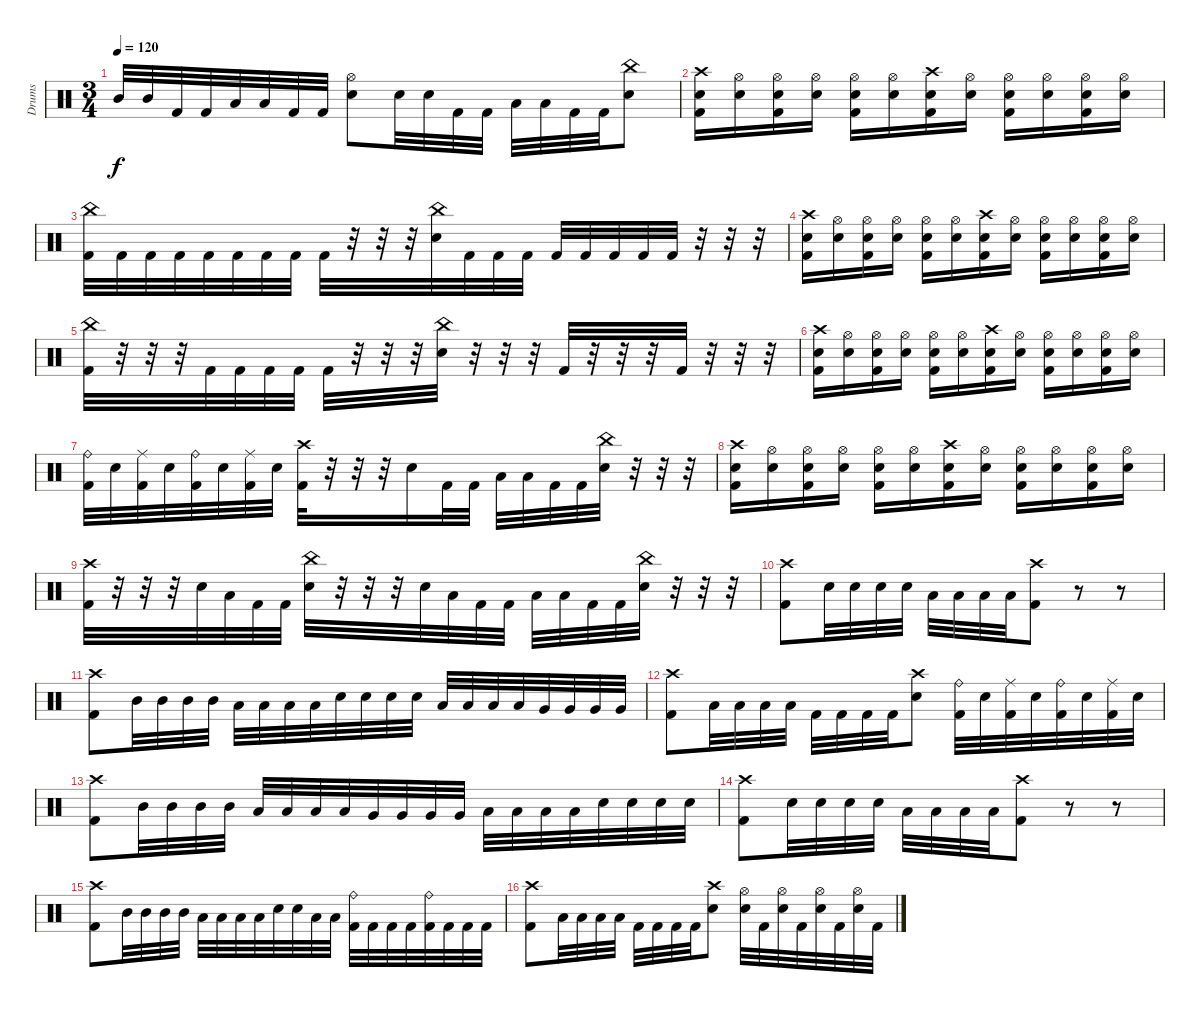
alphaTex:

\track ("Drums" "Drums") {instrument percussion}
\staff {score}
\articulation defaults
\ts (3 4)
\tempo 120
\clef neutral
\ks c "Mid Tom (hit)".32{dy f} "Mid Tom (hit)".32 "Kick (hit) 2".32 "Kick (hit) 2".32 "Low Tom (hit)".32 "Low Tom (hit)".32 "Kick (hit) 2".32 "Kick (hit) 2".32
("Hi-Hat (open)" "Electric Snare (hit)").8 "Electric Snare (hit)".32 "Electric Snare (hit)".32 "Kick (hit) 2".32 "Kick (hit) 2".32 "Low Tom (hit)".32 "Low Tom (hit)".32 "Kick (hit) 2".32 "Kick (hit) 2".32 ("China (hit)" "Electric Snare (hit)").8 |
("Crash high (hit)" "Electric Snare (hit)" "Kick (hit) 2").16 ("Hi-Hat (open)" "Electric Snare (hit)").16 ("Hi-Hat (open)" "Electric Snare (hit)" "Kick (hit) 2").16 ("Hi-Hat (open)" "Electric Snare (hit)").16 ("Hi-Hat (open)" "Electric Snare (hit)" "Kick (hit) 2").16 ("Hi-Hat (open)" "Electric Snare (hit)").16 ("Crash high (hit)" "Electric Snare (hit)" "Kick (hit) 2").16 ("Hi-Hat (open)" "Electric Snare (hit)").16 ("Hi-Hat (open)" "Electric Snare (hit)" "Kick (hit) 2").16 ("Hi-Hat (open)" "Electric Snare (hit)").16 ("Hi-Hat (open)" "Electric Snare (hit)" "Kick (hit) 2").16 ("Hi-Hat (open)" "Electric Snare (hit)").16 |
("China (hit)" "Kick (hit) 2").32 "Kick (hit) 2".32 "Kick (hit) 2".32 "Kick (hit) 2".32 "Kick (hit) 2".32 "Kick (hit) 2".32 "Kick (hit) 2".32 "Kick (hit) 2".32 "Kick (hit) 2".32 r.32 r.32 r.32 ("China (hit)" "Electric Snare (hit)").32 "Kick (hit) 2".32 "Kick (hit) 2".32 "Kick (hit) 2".32 "Kick (hit) 2".32 "Kick (hit) 2".32 "Kick (hit) 2".32 "Kick (hit) 2".32 "Kick (hit) 2".32 r.32 r.32 r.32 |
("Crash high (hit)" "Electric Snare (hit)" "Kick (hit) 2").16 ("Hi-Hat (open)" "Electric Snare (hit)").16 ("Hi-Hat (open)" "Electric Snare (hit)" "Kick (hit) 2").16 ("Hi-Hat (open)" "Electric Snare (hit)").16 ("Hi-Hat (open)" "Electric Snare (hit)" "Kick (hit) 2").16 ("Hi-Hat (open)" "Electric Snare (hit)").16 ("Crash high (hit)" "Electric Snare (hit)" "Kick (hit) 2").16 ("Hi-Hat (open)" "Electric Snare (hit)").16 ("Hi-Hat (open)" "Electric Snare (hit)" "Kick (hit) 2").16 ("Hi-Hat (open)" "Electric Snare (hit)").16 ("Hi-Hat (open)" "Electric Snare (hit)" "Kick (hit) 2").16 ("Hi-Hat (open)" "Electric Snare (hit)").16 |
("China (hit)" "Kick (hit) 2").32 r.32 r.32 r.32 "Kick (hit) 2".32 "Kick (hit) 2".32 "Kick (hit) 2".32 "Kick (hit) 2".32 "Kick (hit) 2".32 r.32 r.32 r.32 ("China (hit)" "Electric Snare (hit)").32 r.32 r.32 r.32 "Kick (hit) 2".32 r.32 r.32 r.32 "Kick (hit) 2".32 r.32 r.32 r.32 |
("Crash high (hit)" "Electric Snare (hit)" "Kick (hit) 2").16 ("Hi-Hat (open)" "Electric Snare (hit)").16 ("Hi-Hat (open)" "Electric Snare (hit)" "Kick (hit) 2").16 ("Hi-Hat (open)" "Electric Snare (hit)").16 ("Hi-Hat (open)" "Electric Snare (hit)" "Kick (hit) 2").16 ("Hi-Hat (open)" "Electric Snare (hit)").16 ("Crash high (hit)" "Electric Snare (hit)" "Kick (hit) 2").16 ("Hi-Hat (open)" "Electric Snare (hit)").16 ("Hi-Hat (open)" "Electric Snare (hit)" "Kick (hit) 2").16 ("Hi-Hat (open)" "Electric Snare (hit)").16 ("Hi-Hat (open)" "Electric Snare (hit)" "Kick (hit) 2").16 ("Hi-Hat (open)" "Electric Snare (hit)").16 |
("Ride (bell)" "Kick (hit) 2").32 "Electric Snare (hit)".32 ("Ride (middle)" "Kick (hit) 2").32 "Electric Snare (hit)".32 ("Ride (bell)" "Kick (hit) 2").32 "Electric Snare (hit)".32 ("Ride (middle)" "Kick (hit) 2").32 "Electric Snare (hit)".32 ("Crash high (hit)" "Kick (hit) 2").32 r.32 r.32 r.32 "Electric Snare (hit)".16 "Kick (hit) 2".32 "Kick (hit) 2".32 "Low Tom (hit)".32 "Low Tom (hit)".32 "Kick (hit) 2".32 "Kick (hit) 2".32 ("China (hit)" "Electric Snare (hit)").32 r.32 r.32 r.32 |
("Crash high (hit)" "Electric Snare (hit)" "Kick (hit) 2").16 ("Hi-Hat (open)" "Electric Snare (hit)").16 ("Hi-Hat (open)" "Electric Snare (hit)" "Kick (hit) 2").16 ("Hi-Hat (open)" "Electric Snare (hit)").16 ("Hi-Hat (open)" "Electric Snare (hit)" "Kick (hit) 2").16 ("Hi-Hat (open)" "Electric Snare (hit)").16 ("Crash high (hit)" "Electric Snare (hit)" "Kick (hit) 2").16 ("Hi-Hat (open)" "Electric Snare (hit)").16 ("Hi-Hat (open)" "Electric Snare (hit)" "Kick (hit) 2").16 ("Hi-Hat (open)" "Electric Snare (hit)").16 ("Hi-Hat (open)" "Electric Snare (hit)" "Kick (hit) 2").16 ("Hi-Hat (open)" "Electric Snare (hit)").16 |
("Crash high (hit)" "Kick (hit) 2").32 r.32 r.32 r.32 "Electric Snare (hit)".32 "Low Tom (hit)".32 "Kick (hit) 2".32 "Kick (hit) 2".32 ("China (hit)" "Electric Snare (hit)").32 r.32 r.32 r.32 "Electric Snare (hit)".32 "Low Tom (hit)".32 "Kick (hit) 2".32 "Kick (hit) 2".32 "Low Tom (hit)".32 "Low Tom (hit)".32 "Kick (hit) 2".32 "Kick (hit) 2".32 ("China (hit)" "Electric Snare (hit)").32 r.32 r.32 r.32 |
("Crash high (hit)" "Kick (hit) 2").8 "Electric Snare (hit)".32 "Electric Snare (hit)".32 "Electric Snare (hit)".32 "Electric Snare (hit)".32 "Low Tom (hit)".32 "Low Tom (hit)".32 "Low Tom (hit)".32 "Low Tom (hit)".32 ("Crash high (hit)" "Kick (hit) 2").8 r.8 r.8 |
("Crash high (hit)" "Kick (hit) 2").8 "Mid Tom (hit)".32 "Mid Tom (hit)".32 "Mid Tom (hit)".32 "Mid Tom (hit)".32 "Low Tom (hit)".32 "Low Tom (hit)".32 "Low Tom (hit)".32 "Low Tom (hit)".32 "Electric Snare (hit)".32 "Electric Snare (hit)".32 "Electric Snare (hit)".32 "Electric Snare (hit)".32 "Low Tom (hit)".32 "Low Tom (hit)".32 "Low Tom (hit)".32 "Low Tom (hit)".32 "Very Low Tom (hit)".32 "Very Low Tom (hit)".32 "Very Low Tom (hit)".32 "Very Low Tom (hit)".32 |
("Crash high (hit)" "Kick (hit) 2").8 "Low Tom (hit)".32 "Low Tom (hit)".32 "Low Tom (hit)".32 "Low Tom (hit)".32 "Kick (hit) 2".32 "Kick (hit) 2".32 "Kick (hit) 2".32 "Kick (hit) 2".32 ("Crash high (hit)" "Electric Snare (hit)").8 ("Ride (bell)" "Kick (hit) 2").32 "Electric Snare (hit)".32 ("Ride (middle)" "Kick (hit) 2").32 "Electric Snare (hit)".32 ("Ride (bell)" "Kick (hit) 2").32 "Electric Snare (hit)".32 ("Ride (middle)" "Kick (hit) 2").32 "Electric Snare (hit)".32 |
("Crash high (hit)" "Kick (hit) 2").8 "Mid Tom (hit)".32 "Mid Tom (hit)".32 "Mid Tom (hit)".32 "Mid Tom (hit)".32 "Low Tom (hit)".32 "Low Tom (hit)".32 "Low Tom (hit)".32 "Low Tom (hit)".32 "Very Low Tom (hit)".32 "Very Low Tom (hit)".32 "Very Low Tom (hit)".32 "Very Low Tom (hit)".32 "Low Floor Tom (hit)".32 "Low Floor Tom (hit)".32 "Low Floor Tom (hit)".32 "Low Floor Tom (hit)".32 "Electric Snare (hit)".32 "Electric Snare (hit)".32 "Electric Snare (hit)".32 "Electric Snare (hit)".32 |
("Crash high (hit)" "Kick (hit) 2").8 "Electric Snare (hit)".32 "Electric Snare (hit)".32 "Electric Snare (hit)".32 "Electric Snare (hit)".32 "Low Tom (hit)".32 "Low Tom (hit)".32 "Low Tom (hit)".32 "Low Tom (hit)".32 ("Crash high (hit)" "Kick (hit) 2").8 r.8 r.8 |
("Crash high (hit)" "Kick (hit) 2").8 "Mid Tom (hit)".32 "Mid Tom (hit)".32 "Mid Tom (hit)".32 "Mid Tom (hit)".32 "Low Tom (hit)".32 "Low Tom (hit)".32 "Low Tom (hit)".32 "Low Tom (hit)".32 "Electric Snare (hit)".32 "Electric Snare (hit)".32 "Low Tom (hit)".32 "Low Tom (hit)".32 ("Ride (bell)" "Kick (hit) 2").32 "Kick (hit) 2".32 "Kick (hit) 2".32 "Kick (hit) 2".32 ("Ride (bell)" "Kick (hit) 2").32 "Kick (hit) 2".32 "Kick (hit) 2".32 "Kick (hit) 2".32 |
("Crash high (hit)" "Kick (hit) 2").8 "Low Tom (hit)".32 "Low Tom (hit)".32 "Low Tom (hit)".32 "Low Tom (hit)".32 "Kick (hit) 2".32 "Kick (hit) 2".32 "Kick (hit) 2".32 "Kick (hit) 2".32 ("Crash high (hit)" "Electric Snare (hit)").8 ("Hi-Hat (open)" "Electric Snare (hit)").32 "Kick (hit) 2".32 ("Hi-Hat (open)" "Electric Snare (hit)").32 "Kick (hit) 2".32 ("Hi-Hat (open)" "Electric Snare (hit)").32 "Kick (hit) 2".32 ("Hi-Hat (open)" "Electric Snare (hit)").32 "Kick (hit) 2".32
